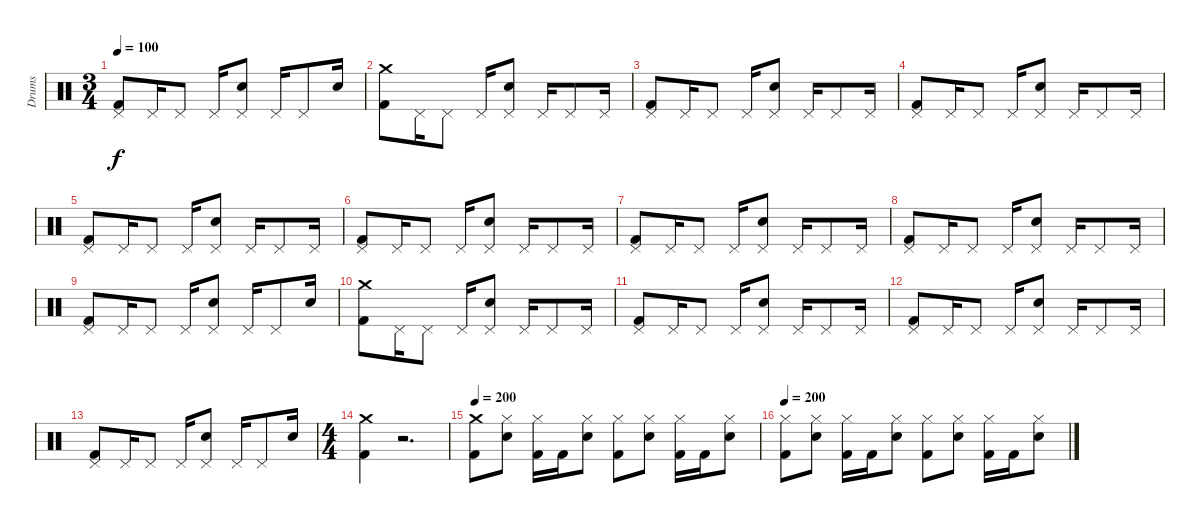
\track ("Drums" "Drums") {instrument percussion}
\staff {score}
\articulation defaults
\ts (3 4)
\tempo 100
\clef neutral
\ks c
("Pedal Hi-Hat (hit)" "Kick (hit) 2").8{dy f} "Pedal Hi-Hat (hit)".16 "Pedal Hi-Hat (hit)".8 "Pedal Hi-Hat (hit)".16 ("Pedal Hi-Hat (hit)" "Snare (hit) 2").8 "Pedal Hi-Hat (hit)".16 "Pedal Hi-Hat (hit)".8 "Snare (hit) 2".16 |
("Crash medium (hit)" "Kick (hit) 2").8 "Pedal Hi-Hat (hit)".16 "Pedal Hi-Hat (hit)".8 "Pedal Hi-Hat (hit)".16 ("Pedal Hi-Hat (hit)" "Snare (hit) 2").8 "Pedal Hi-Hat (hit)".16 "Pedal Hi-Hat (hit)".8 "Pedal Hi-Hat (hit)".16 |
("Pedal Hi-Hat (hit)" "Kick (hit) 2").8 "Pedal Hi-Hat (hit)".16 "Pedal Hi-Hat (hit)".8 "Pedal Hi-Hat (hit)".16 ("Pedal Hi-Hat (hit)" "Snare (hit) 2").8 "Pedal Hi-Hat (hit)".16 "Pedal Hi-Hat (hit)".8 "Pedal Hi-Hat (hit)".16 |
("Pedal Hi-Hat (hit)" "Kick (hit) 2").8 "Pedal Hi-Hat (hit)".16 "Pedal Hi-Hat (hit)".8 "Pedal Hi-Hat (hit)".16 ("Pedal Hi-Hat (hit)" "Snare (hit) 2").8 "Pedal Hi-Hat (hit)".16 "Pedal Hi-Hat (hit)".8 "Pedal Hi-Hat (hit)".16 |
("Pedal Hi-Hat (hit)" "Kick (hit) 2").8 "Pedal Hi-Hat (hit)".16 "Pedal Hi-Hat (hit)".8 "Pedal Hi-Hat (hit)".16 ("Pedal Hi-Hat (hit)" "Snare (hit) 2").8 "Pedal Hi-Hat (hit)".16 "Pedal Hi-Hat (hit)".8 "Pedal Hi-Hat (hit)".16 |
("Pedal Hi-Hat (hit)" "Kick (hit) 2").8 "Pedal Hi-Hat (hit)".16 "Pedal Hi-Hat (hit)".8 "Pedal Hi-Hat (hit)".16 ("Pedal Hi-Hat (hit)" "Snare (hit) 2").8 "Pedal Hi-Hat (hit)".16 "Pedal Hi-Hat (hit)".8 "Pedal Hi-Hat (hit)".16 |
("Pedal Hi-Hat (hit)" "Kick (hit) 2").8 "Pedal Hi-Hat (hit)".16 "Pedal Hi-Hat (hit)".8 "Pedal Hi-Hat (hit)".16 ("Pedal Hi-Hat (hit)" "Snare (hit) 2").8 "Pedal Hi-Hat (hit)".16 "Pedal Hi-Hat (hit)".8 "Pedal Hi-Hat (hit)".16 |
("Pedal Hi-Hat (hit)" "Kick (hit) 2").8 "Pedal Hi-Hat (hit)".16 "Pedal Hi-Hat (hit)".8 "Pedal Hi-Hat (hit)".16 ("Pedal Hi-Hat (hit)" "Snare (hit) 2").8 "Pedal Hi-Hat (hit)".16 "Pedal Hi-Hat (hit)".8 "Pedal Hi-Hat (hit)".16 |
("Pedal Hi-Hat (hit)" "Kick (hit) 2").8 "Pedal Hi-Hat (hit)".16 "Pedal Hi-Hat (hit)".8 "Pedal Hi-Hat (hit)".16 ("Pedal Hi-Hat (hit)" "Snare (hit) 2").8 "Pedal Hi-Hat (hit)".16 "Pedal Hi-Hat (hit)".8 "Snare (hit) 2".16 |
("Crash medium (hit)" "Kick (hit) 2").8 "Pedal Hi-Hat (hit)".16 "Pedal Hi-Hat (hit)".8 "Pedal Hi-Hat (hit)".16 ("Pedal Hi-Hat (hit)" "Snare (hit) 2").8 "Pedal Hi-Hat (hit)".16 "Pedal Hi-Hat (hit)".8 "Pedal Hi-Hat (hit)".16 |
("Pedal Hi-Hat (hit)" "Kick (hit) 2").8 "Pedal Hi-Hat (hit)".16 "Pedal Hi-Hat (hit)".8 "Pedal Hi-Hat (hit)".16 ("Pedal Hi-Hat (hit)" "Snare (hit) 2").8 "Pedal Hi-Hat (hit)".16 "Pedal Hi-Hat (hit)".8 "Pedal Hi-Hat (hit)".16 |
("Pedal Hi-Hat (hit)" "Kick (hit) 2").8 "Pedal Hi-Hat (hit)".16 "Pedal Hi-Hat (hit)".8 "Pedal Hi-Hat (hit)".16 ("Pedal Hi-Hat (hit)" "Snare (hit) 2").8 "Pedal Hi-Hat (hit)".16 "Pedal Hi-Hat (hit)".8 "Pedal Hi-Hat (hit)".16 |
("Pedal Hi-Hat (hit)" "Kick (hit) 2").8 "Pedal Hi-Hat (hit)".16 "Pedal Hi-Hat (hit)".8 "Pedal Hi-Hat (hit)".16 ("Pedal Hi-Hat (hit)" "Snare (hit) 2").8 "Pedal Hi-Hat (hit)".16 "Pedal Hi-Hat (hit)".8 "Snare (hit) 2".16 |
\ts (4 4)
("Crash medium (hit)" "Kick (hit) 2").4 r.2{d} |
\tempo 200
("Crash medium (hit)" "Kick (hit) 2").8 ("Hi-Hat (closed)" "Snare (hit) 2").8 ("Hi-Hat (closed)" "Kick (hit) 2").16 "Kick (hit) 2".16 ("Hi-Hat (closed)" "Snare (hit) 2").8 ("Hi-Hat (closed)" "Kick (hit) 2").8 ("Hi-Hat (closed)" "Snare (hit) 2").8 ("Hi-Hat (closed)" "Kick (hit) 2").16 "Kick (hit) 2".16 ("Hi-Hat (closed)" "Snare (hit) 2").8 |
\tempo 200
("Hi-Hat (closed)" "Kick (hit) 2").8 ("Hi-Hat (closed)" "Snare (hit) 2").8 ("Hi-Hat (closed)" "Kick (hit) 2").16 "Kick (hit) 2".16 ("Hi-Hat (closed)" "Snare (hit) 2").8 ("Hi-Hat (closed)" "Kick (hit) 2").8 ("Hi-Hat (closed)" "Snare (hit) 2").8 ("Hi-Hat (closed)" "Kick (hit) 2").16 "Kick (hit) 2".16 ("Hi-Hat (closed)" "Snare (hit) 2").8
